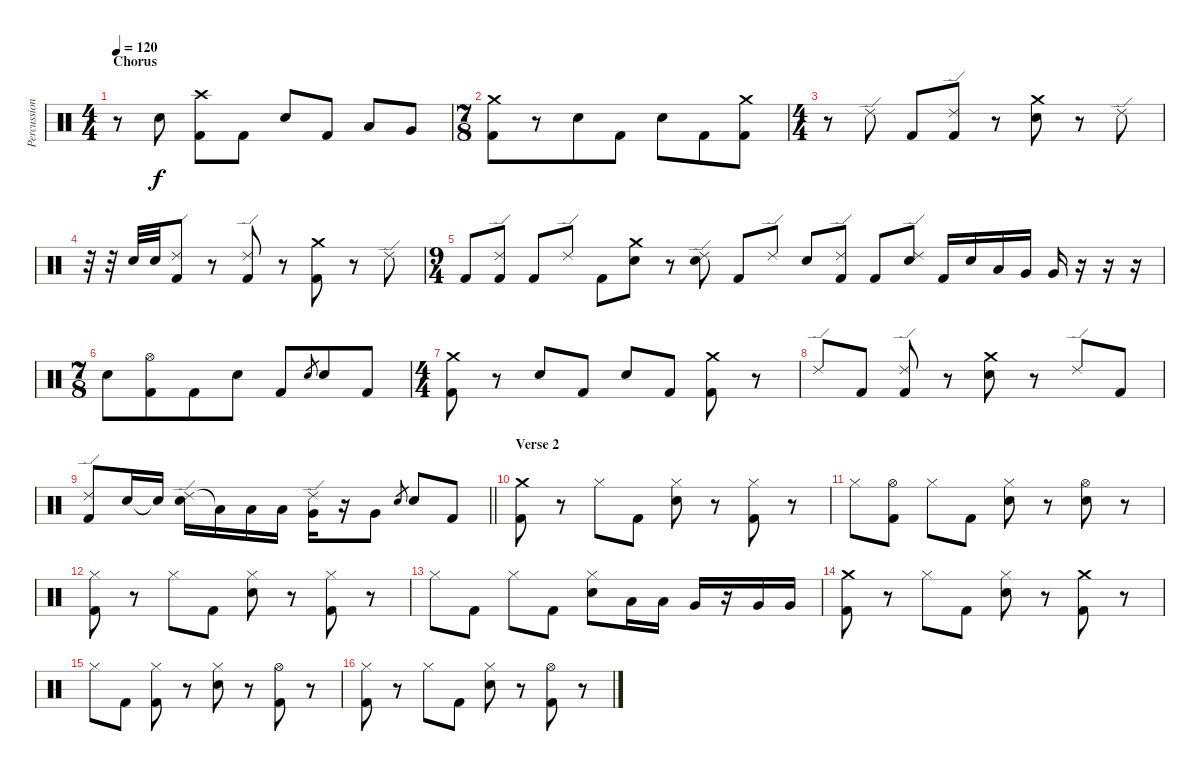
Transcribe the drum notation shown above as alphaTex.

\track ("Percussion" "Percussion") {instrument percussion}
\staff {score}
\articulation defaults
\ts (4 4)
\section ("" "Chorus")
\tempo 120
\clef neutral
\ks c
r.8{dy f} "Electric Snare (hit)".8 ("Crash high (hit)" "Kick (hit) 2").8 "Kick (hit) 2".8 "Electric Snare (hit)".8 "Kick (hit) 2".8 "Low Tom (hit)".8 "Very Low Tom (hit)".8 |
\ts (7 8)
("Crash medium (hit)" "Kick (hit) 2").8 r.8 "Electric Snare (hit)".8 "Kick (hit) 2".8 "Electric Snare (hit)".8 "Kick (hit) 2".8 ("Crash medium (hit)" "Kick (hit) 2").8 |
\ts (4 4)
r.8 "Ride (edge) 2".8 "Kick (hit) 2".8 ("Ride (edge) 2" "Kick (hit) 2").8 r.8 ("Crash medium (hit)" "Electric Snare (hit)").8 r.8 "Ride (edge) 2".8 |
r.32 r.32 "Electric Snare (hit)".32 "Electric Snare (hit)".32 ("Ride (edge) 2" "Kick (hit) 2").8 r.8 ("Ride (edge) 2" "Kick (hit) 2").8 r.8 ("Crash medium (hit)" "Kick (hit) 2").8 r.8 "Ride (edge) 2".8 |
\ts (9 4)
"Kick (hit) 2".8 ("Ride (edge) 2" "Kick (hit) 2").8 "Kick (hit) 2".8 "Ride (edge) 2".8 "Kick (hit) 2".8 ("Crash medium (hit)" "Electric Snare (hit)").8 r.8 ("Ride (edge) 2" "Electric Snare (hit)").8 "Kick (hit) 2".8 "Ride (edge) 2".8 "Electric Snare (hit)".8 ("Ride (edge) 2" "Kick (hit) 2").8 "Kick (hit) 2".8 ("Ride (edge) 2" "Electric Snare (hit)").8 "Kick (hit) 2".16 "Electric Snare (hit)".16 "Low Tom (hit)".16 "Very Low Tom (hit)".16 "Very Low Tom (hit)".16 r.16 r.16 r.16 |
\ts (7 8)
"Electric Snare (hit)".8 ("Hi-Hat (open)" "Kick (hit) 2").8 "Kick (hit) 2".8 "Electric Snare (hit)".8 "Kick (hit) 2".8 "Electric Snare (hit)".8{gr} "Electric Snare (hit)".8 "Kick (hit) 2".8 |
\ts (4 4)
("Crash medium (hit)" "Kick (hit) 2").8 r.8 "Electric Snare (hit)".8 "Kick (hit) 2".8 "Electric Snare (hit)".8 "Kick (hit) 2".8 ("Crash medium (hit)" "Kick (hit) 2").8 r.8 |
"Ride (edge) 2".8 "Kick (hit) 2".8 ("Ride (edge) 2" "Kick (hit) 2").8 r.8 ("Crash medium (hit)" "Electric Snare (hit)").8 r.8 "Ride (edge) 2".8 "Kick (hit) 2".8 |
\barLineRight lightlight
("Ride (edge) 2" "Kick (hit) 2").8 "Electric Snare (hit)".16 "Electric Snare (hit)"{t}.16 ("Ride (edge) 2" "Electric Snare (hit)").16 "Low Tom (hit)"{t}.16 "Low Tom (hit)".16 "Low Tom (hit)".16 ("Ride (edge) 2" "Very Low Tom (hit)").16 r.16 "Very Low Tom (hit)".8 "Electric Snare (hit)".8{gr} "Electric Snare (hit)".8 "Kick (hit) 2".8 |
\section ("" "Verse 2")
("Crash medium (hit)" "Kick (hit) 2").8 r.8 "Hi-Hat (closed)".8 "Kick (hit) 2".8 ("Hi-Hat (closed)" "Electric Snare (hit)").8 r.8 ("Hi-Hat (closed)" "Kick (hit) 2").8 r.8 |
"Hi-Hat (closed)".8 ("Hi-Hat (open)" "Kick (hit) 2").8 "Hi-Hat (closed)".8 "Kick (hit) 2".8 ("Hi-Hat (closed)" "Electric Snare (hit)").8 r.8 ("Hi-Hat (open)" "Electric Snare (hit)").8 r.8 |
("Hi-Hat (closed)" "Kick (hit) 2").8 r.8 "Hi-Hat (closed)".8 "Kick (hit) 2".8 ("Hi-Hat (closed)" "Electric Snare (hit)").8 r.8 ("Hi-Hat (closed)" "Kick (hit) 2").8 r.8 |
"Hi-Hat (closed)".8 "Kick (hit) 2".8 "Hi-Hat (closed)".8 "Kick (hit) 2".8 ("Hi-Hat (closed)" "Electric Snare (hit)").8 "Low Tom (hit)".16 "Low Tom (hit)".16 "Very Low Tom (hit)".16 r.16 "Very Low Tom (hit)".16 "Very Low Tom (hit)".16 |
("Crash medium (hit)" "Kick (hit) 2").8 r.8 "Hi-Hat (closed)".8 "Kick (hit) 2".8 ("Hi-Hat (closed)" "Electric Snare (hit)").8 r.8 ("Crash medium (hit)" "Kick (hit) 2").8 r.8 |
"Hi-Hat (closed)".8 "Kick (hit) 2".8 ("Hi-Hat (closed)" "Kick (hit) 2").8 r.8 ("Hi-Hat (closed)" "Electric Snare (hit)").8 r.8 ("Hi-Hat (open)" "Kick (hit) 2").8 r.8 |
("Hi-Hat (closed)" "Kick (hit) 2").8 r.8 "Hi-Hat (closed)".8 "Kick (hit) 2".8 ("Hi-Hat (closed)" "Electric Snare (hit)").8 r.8 ("Hi-Hat (open)" "Kick (hit) 2").8 r.8
